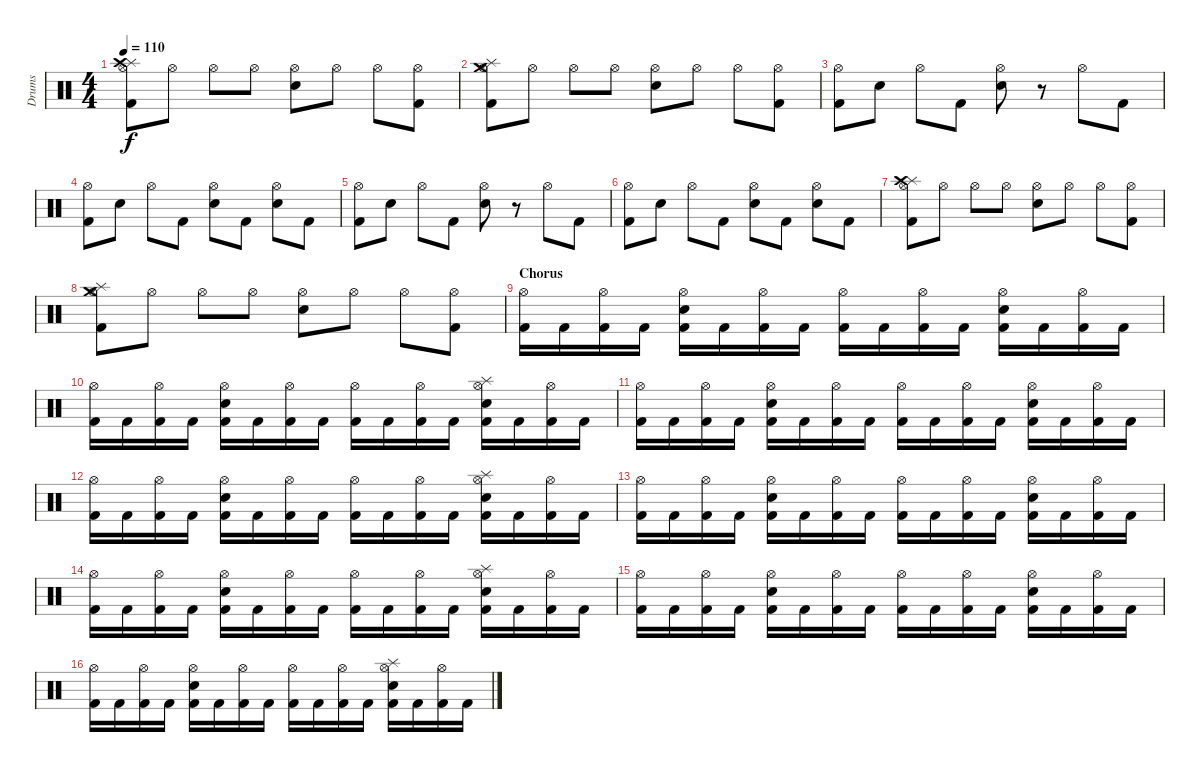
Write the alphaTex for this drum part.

\track ("Drums" "Drums") {instrument percussion}
\staff {score}
\articulation defaults
\ts (4 4)
\tempo 110
\clef neutral
\ks c
("Hi-Hat (open)" "Splash (hit)" "Crash high (hit)" "Kick (hit) 2").8{dy f} "Hi-Hat (open)".8 "Hi-Hat (open)".8 "Hi-Hat (open)".8 ("Hi-Hat (open)" "Snare (hit) 2").8 "Hi-Hat (open)".8 "Hi-Hat (open)".8 ("Hi-Hat (open)" "Kick (hit) 2").8 |
("Hi-Hat (open)" "Splash (hit)" "Crash medium (hit)" "Kick (hit) 2").8 "Hi-Hat (open)".8 "Hi-Hat (open)".8 "Hi-Hat (open)".8 ("Hi-Hat (open)" "Snare (hit) 2").8 "Hi-Hat (open)".8 "Hi-Hat (open)".8 ("Hi-Hat (open)" "Kick (hit) 2").8 |
("Hi-Hat (open)" "Kick (hit) 2").8 "Snare (hit) 2".8 "Hi-Hat (open)".8 "Kick (hit) 2".8 ("Hi-Hat (open)" "Snare (hit) 2").8 r.8 "Hi-Hat (open)".8 "Kick (hit) 2".8 |
("Hi-Hat (open)" "Kick (hit) 2").8 "Snare (hit) 2".8 "Hi-Hat (open)".8 "Kick (hit) 2".8 ("Hi-Hat (open)" "Snare (hit) 2").8 "Kick (hit) 2".8 ("Hi-Hat (open)" "Snare (hit) 2").8 "Kick (hit) 2".8 |
("Hi-Hat (open)" "Kick (hit) 2").8 "Snare (hit) 2".8 "Hi-Hat (open)".8 "Kick (hit) 2".8 ("Hi-Hat (open)" "Snare (hit) 2").8 r.8 "Hi-Hat (open)".8 "Kick (hit) 2".8 |
("Hi-Hat (open)" "Kick (hit) 2").8 "Snare (hit) 2".8 "Hi-Hat (open)".8 "Kick (hit) 2".8 ("Hi-Hat (open)" "Snare (hit) 2").8 "Kick (hit) 2".8 ("Hi-Hat (open)" "Snare (hit) 2").8 "Kick (hit) 2".8 |
("Hi-Hat (open)" "Splash (hit)" "Crash high (hit)" "Kick (hit) 2").8 "Hi-Hat (open)".8 "Hi-Hat (open)".8 "Hi-Hat (open)".8 ("Hi-Hat (open)" "Snare (hit) 2").8 "Hi-Hat (open)".8 "Hi-Hat (open)".8 ("Hi-Hat (open)" "Kick (hit) 2").8 |
("Hi-Hat (open)" "Splash (hit)" "Crash medium (hit)" "Kick (hit) 2").8 "Hi-Hat (open)".8 "Hi-Hat (open)".8 "Hi-Hat (open)".8 ("Hi-Hat (open)" "Snare (hit) 2").8 "Hi-Hat (open)".8 "Hi-Hat (open)".8 ("Hi-Hat (open)" "Kick (hit) 2").8 |
\section ("" "Chorus")
("Hi-Hat (open)" "Kick (hit) 2").16 "Kick (hit) 2".16 ("Hi-Hat (open)" "Kick (hit) 2").16 "Kick (hit) 2".16 ("Hi-Hat (open)" "Snare (hit) 2" "Kick (hit) 2").16 "Kick (hit) 2".16 ("Hi-Hat (open)" "Kick (hit) 2").16 "Kick (hit) 2".16 ("Hi-Hat (open)" "Kick (hit) 2").16 "Kick (hit) 2".16 ("Hi-Hat (open)" "Kick (hit) 2").16 "Kick (hit) 2".16 ("Hi-Hat (open)" "Snare (hit) 2" "Kick (hit) 2").16 "Kick (hit) 2".16 ("Hi-Hat (open)" "Kick (hit) 2").16 "Kick (hit) 2".16 |
("Hi-Hat (open)" "Kick (hit) 2").16 "Kick (hit) 2".16 ("Hi-Hat (open)" "Kick (hit) 2").16 "Kick (hit) 2".16 ("Hi-Hat (open)" "Snare (hit) 2" "Kick (hit) 2").16 "Kick (hit) 2".16 ("Hi-Hat (open)" "Kick (hit) 2").16 "Kick (hit) 2".16 ("Hi-Hat (open)" "Kick (hit) 2").16 "Kick (hit) 2".16 ("Hi-Hat (open)" "Kick (hit) 2").16 "Kick (hit) 2".16 ("Hi-Hat (open)" "Snare (hit) 2" "Splash (hit)" "Kick (hit) 2").16 "Kick (hit) 2".16 ("Hi-Hat (open)" "Kick (hit) 2").16 "Kick (hit) 2".16 |
("Hi-Hat (open)" "Kick (hit) 2").16 "Kick (hit) 2".16 ("Hi-Hat (open)" "Kick (hit) 2").16 "Kick (hit) 2".16 ("Hi-Hat (open)" "Snare (hit) 2" "Kick (hit) 2").16 "Kick (hit) 2".16 ("Hi-Hat (open)" "Kick (hit) 2").16 "Kick (hit) 2".16 ("Hi-Hat (open)" "Kick (hit) 2").16 "Kick (hit) 2".16 ("Hi-Hat (open)" "Kick (hit) 2").16 "Kick (hit) 2".16 ("Hi-Hat (open)" "Snare (hit) 2" "Kick (hit) 2").16 "Kick (hit) 2".16 ("Hi-Hat (open)" "Kick (hit) 2").16 "Kick (hit) 2".16 |
("Hi-Hat (open)" "Kick (hit) 2").16 "Kick (hit) 2".16 ("Hi-Hat (open)" "Kick (hit) 2").16 "Kick (hit) 2".16 ("Hi-Hat (open)" "Snare (hit) 2" "Kick (hit) 2").16 "Kick (hit) 2".16 ("Hi-Hat (open)" "Kick (hit) 2").16 "Kick (hit) 2".16 ("Hi-Hat (open)" "Kick (hit) 2").16 "Kick (hit) 2".16 ("Hi-Hat (open)" "Kick (hit) 2").16 "Kick (hit) 2".16 ("Hi-Hat (open)" "Snare (hit) 2" "Splash (hit)" "Kick (hit) 2").16 "Kick (hit) 2".16 ("Hi-Hat (open)" "Kick (hit) 2").16 "Kick (hit) 2".16 |
("Hi-Hat (open)" "Kick (hit) 2").16 "Kick (hit) 2".16 ("Hi-Hat (open)" "Kick (hit) 2").16 "Kick (hit) 2".16 ("Hi-Hat (open)" "Snare (hit) 2" "Kick (hit) 2").16 "Kick (hit) 2".16 ("Hi-Hat (open)" "Kick (hit) 2").16 "Kick (hit) 2".16 ("Hi-Hat (open)" "Kick (hit) 2").16 "Kick (hit) 2".16 ("Hi-Hat (open)" "Kick (hit) 2").16 "Kick (hit) 2".16 ("Hi-Hat (open)" "Snare (hit) 2" "Kick (hit) 2").16 "Kick (hit) 2".16 ("Hi-Hat (open)" "Kick (hit) 2").16 "Kick (hit) 2".16 |
("Hi-Hat (open)" "Kick (hit) 2").16 "Kick (hit) 2".16 ("Hi-Hat (open)" "Kick (hit) 2").16 "Kick (hit) 2".16 ("Hi-Hat (open)" "Snare (hit) 2" "Kick (hit) 2").16 "Kick (hit) 2".16 ("Hi-Hat (open)" "Kick (hit) 2").16 "Kick (hit) 2".16 ("Hi-Hat (open)" "Kick (hit) 2").16 "Kick (hit) 2".16 ("Hi-Hat (open)" "Kick (hit) 2").16 "Kick (hit) 2".16 ("Hi-Hat (open)" "Snare (hit) 2" "Splash (hit)" "Kick (hit) 2").16 "Kick (hit) 2".16 ("Hi-Hat (open)" "Kick (hit) 2").16 "Kick (hit) 2".16 |
("Hi-Hat (open)" "Kick (hit) 2").16 "Kick (hit) 2".16 ("Hi-Hat (open)" "Kick (hit) 2").16 "Kick (hit) 2".16 ("Hi-Hat (open)" "Snare (hit) 2" "Kick (hit) 2").16 "Kick (hit) 2".16 ("Hi-Hat (open)" "Kick (hit) 2").16 "Kick (hit) 2".16 ("Hi-Hat (open)" "Kick (hit) 2").16 "Kick (hit) 2".16 ("Hi-Hat (open)" "Kick (hit) 2").16 "Kick (hit) 2".16 ("Hi-Hat (open)" "Snare (hit) 2" "Kick (hit) 2").16 "Kick (hit) 2".16 ("Hi-Hat (open)" "Kick (hit) 2").16 "Kick (hit) 2".16 |
("Hi-Hat (open)" "Kick (hit) 2").16 "Kick (hit) 2".16 ("Hi-Hat (open)" "Kick (hit) 2").16 "Kick (hit) 2".16 ("Hi-Hat (open)" "Snare (hit) 2" "Kick (hit) 2").16 "Kick (hit) 2".16 ("Hi-Hat (open)" "Kick (hit) 2").16 "Kick (hit) 2".16 ("Hi-Hat (open)" "Kick (hit) 2").16 "Kick (hit) 2".16 ("Hi-Hat (open)" "Kick (hit) 2").16 "Kick (hit) 2".16 ("Hi-Hat (open)" "Snare (hit) 2" "Splash (hit)" "Kick (hit) 2").16 "Kick (hit) 2".16 ("Hi-Hat (open)" "Kick (hit) 2").16 "Kick (hit) 2".16
